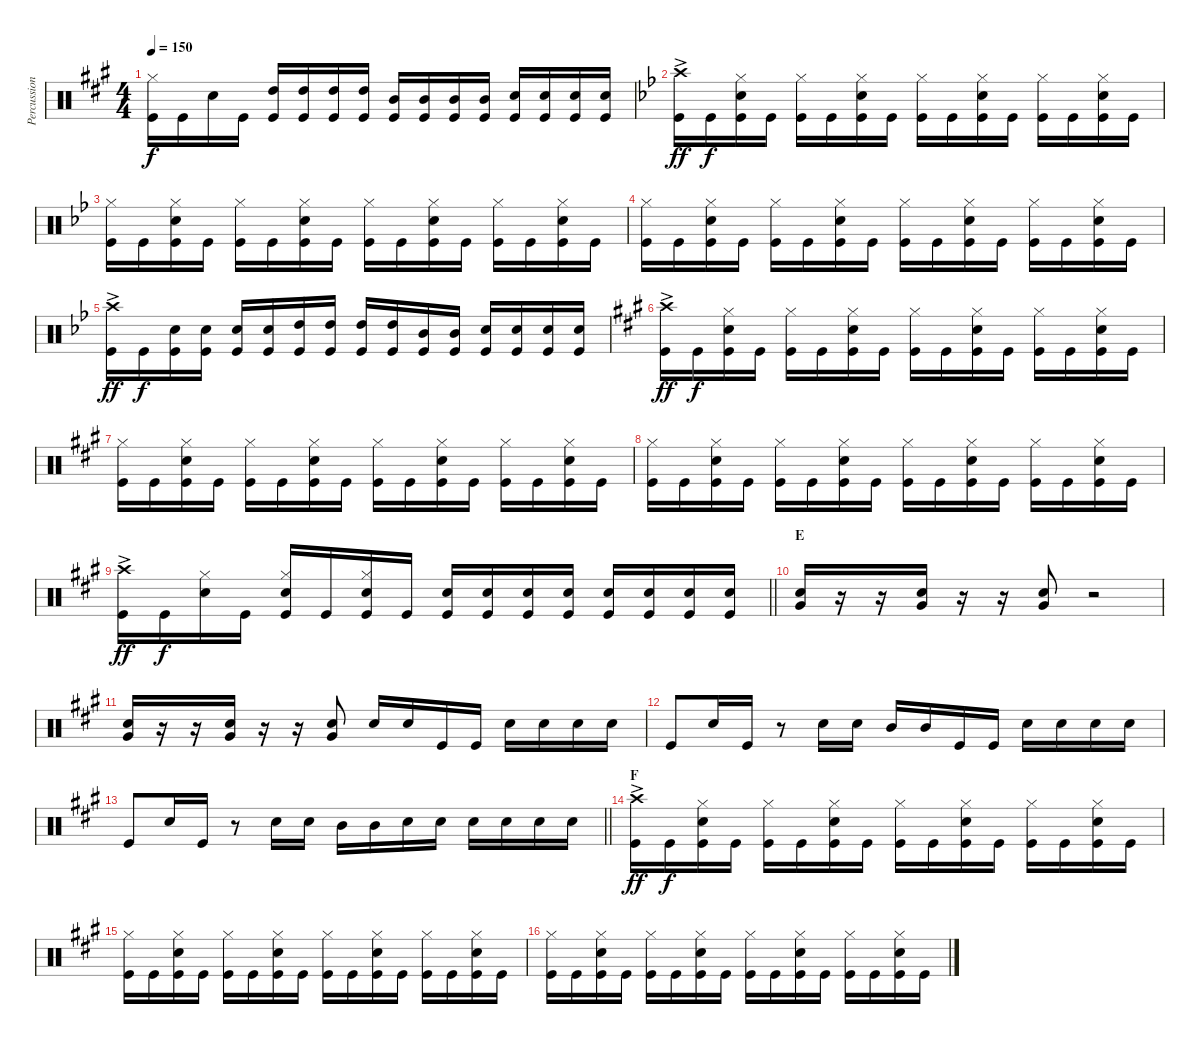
\track ("Percussion" "Percussion") {instrument percussion}
\staff {score}
\articulation defaults
\ts (4 4)
\tempo 150
\clef neutral
\ks a
("Kick (hit)" "Hi-Hat (closed)").16{dy f} "Kick (hit)".16 "Snare (hit) 2".16 "Kick (hit)".16 ("Kick (hit)" "High Tom (hit)").16 ("Kick (hit)" "High Tom (hit)").16 ("Kick (hit)" "High Tom (hit)").16 ("Kick (hit)" "High Tom (hit)").16 ("Kick (hit)" "Mid Tom (hit)").16 ("Kick (hit)" "Mid Tom (hit)").16 ("Kick (hit)" "Mid Tom (hit)").16 ("Kick (hit)" "Mid Tom (hit)").16 ("Kick (hit)" "Snare (hit) 2").16 ("Kick (hit)" "Snare (hit) 2").16 ("Kick (hit)" "Snare (hit) 2").16 ("Kick (hit)" "Snare (hit) 2").16 |
\ks bb
("Crash high (hit)"{ac} "Kick (hit)").16{dy ff} "Kick (hit)".16{dy f} ("Hi-Hat (closed)" "Kick (hit)" "Snare (hit) 2").16 "Kick (hit)".16 ("Hi-Hat (closed)" "Kick (hit)").16 "Kick (hit)".16 ("Hi-Hat (closed)" "Kick (hit)" "Snare (hit) 2").16 "Kick (hit)".16 ("Kick (hit)" "Hi-Hat (closed)").16 "Kick (hit)".16 ("Kick (hit)" "Hi-Hat (closed)" "Snare (hit) 2").16 "Kick (hit)".16 ("Kick (hit)" "Hi-Hat (closed)").16 "Kick (hit)".16 ("Kick (hit)" "Hi-Hat (closed)" "Snare (hit) 2").16 "Kick (hit)".16 |
("Hi-Hat (closed)" "Kick (hit)").16 "Kick (hit)".16 ("Hi-Hat (closed)" "Kick (hit)" "Snare (hit) 2").16 "Kick (hit)".16 ("Hi-Hat (closed)" "Kick (hit)").16 "Kick (hit)".16 ("Hi-Hat (closed)" "Kick (hit)" "Snare (hit) 2").16 "Kick (hit)".16 ("Kick (hit)" "Hi-Hat (closed)").16 "Kick (hit)".16 ("Kick (hit)" "Hi-Hat (closed)" "Snare (hit) 2").16 "Kick (hit)".16 ("Kick (hit)" "Hi-Hat (closed)").16 "Kick (hit)".16 ("Kick (hit)" "Hi-Hat (closed)" "Snare (hit) 2").16 "Kick (hit)".16 |
("Hi-Hat (closed)" "Kick (hit)").16 "Kick (hit)".16 ("Hi-Hat (closed)" "Kick (hit)" "Snare (hit) 2").16 "Kick (hit)".16 ("Hi-Hat (closed)" "Kick (hit)").16 "Kick (hit)".16 ("Hi-Hat (closed)" "Kick (hit)" "Snare (hit) 2").16 "Kick (hit)".16 ("Kick (hit)" "Hi-Hat (closed)").16 "Kick (hit)".16 ("Kick (hit)" "Hi-Hat (closed)" "Snare (hit) 2").16 "Kick (hit)".16 ("Kick (hit)" "Hi-Hat (closed)").16 "Kick (hit)".16 ("Kick (hit)" "Hi-Hat (closed)" "Snare (hit) 2").16 "Kick (hit)".16 |
("Kick (hit)" "Crash high (hit)"{ac}).16{dy ff} "Kick (hit)".16{dy f} ("Snare (hit) 2" "Kick (hit)").16 ("Kick (hit)" "Snare (hit) 2").16 ("Kick (hit)" "Snare (hit) 2").16 ("Kick (hit)" "Snare (hit) 2").16 ("Kick (hit)" "High Tom (hit)").16 ("Kick (hit)" "High Tom (hit)").16 ("Kick (hit)" "High Tom (hit)").16 ("Kick (hit)" "High Tom (hit)").16 ("Kick (hit)" "Mid Tom (hit)").16 ("Kick (hit)" "Mid Tom (hit)").16 ("Kick (hit)" "Snare (hit) 2").16 ("Kick (hit)" "Snare (hit) 2").16 ("Kick (hit)" "Snare (hit) 2").16 ("Kick (hit)" "Snare (hit) 2").16 |
\ks a
("Crash high (hit)"{ac} "Kick (hit)").16{dy ff} "Kick (hit)".16{dy f} ("Hi-Hat (closed)" "Kick (hit)" "Snare (hit) 2").16 "Kick (hit)".16 ("Hi-Hat (closed)" "Kick (hit)").16 "Kick (hit)".16 ("Hi-Hat (closed)" "Kick (hit)" "Snare (hit) 2").16 "Kick (hit)".16 ("Kick (hit)" "Hi-Hat (closed)").16 "Kick (hit)".16 ("Kick (hit)" "Hi-Hat (closed)" "Snare (hit) 2").16 "Kick (hit)".16 ("Kick (hit)" "Hi-Hat (closed)").16 "Kick (hit)".16 ("Kick (hit)" "Hi-Hat (closed)" "Snare (hit) 2").16 "Kick (hit)".16 |
("Hi-Hat (closed)" "Kick (hit)").16 "Kick (hit)".16 ("Hi-Hat (closed)" "Kick (hit)" "Snare (hit) 2").16 "Kick (hit)".16 ("Hi-Hat (closed)" "Kick (hit)").16 "Kick (hit)".16 ("Hi-Hat (closed)" "Kick (hit)" "Snare (hit) 2").16 "Kick (hit)".16 ("Kick (hit)" "Hi-Hat (closed)").16 "Kick (hit)".16 ("Kick (hit)" "Hi-Hat (closed)" "Snare (hit) 2").16 "Kick (hit)".16 ("Kick (hit)" "Hi-Hat (closed)").16 "Kick (hit)".16 ("Kick (hit)" "Hi-Hat (closed)" "Snare (hit) 2").16 "Kick (hit)".16 |
("Hi-Hat (closed)" "Kick (hit)").16 "Kick (hit)".16 ("Hi-Hat (closed)" "Kick (hit)" "Snare (hit) 2").16 "Kick (hit)".16 ("Hi-Hat (closed)" "Kick (hit)").16 "Kick (hit)".16 ("Hi-Hat (closed)" "Kick (hit)" "Snare (hit) 2").16 "Kick (hit)".16 ("Kick (hit)" "Hi-Hat (closed)").16 "Kick (hit)".16 ("Kick (hit)" "Hi-Hat (closed)" "Snare (hit) 2").16 "Kick (hit)".16 ("Kick (hit)" "Hi-Hat (closed)").16 "Kick (hit)".16 ("Kick (hit)" "Hi-Hat (closed)" "Snare (hit) 2").16 "Kick (hit)".16 |
\barLineRight lightlight
("Crash high (hit)"{ac} "Kick (hit)").16{dy ff} "Kick (hit)".16{dy f} ("Hi-Hat (closed)" "Snare (hit) 2").16 "Kick (hit)".16 ("Hi-Hat (closed)" "Snare (hit) 2" "Kick (hit)").16 "Kick (hit)".16 ("Hi-Hat (closed)" "Snare (hit) 2" "Kick (hit)").16 "Kick (hit)".16 ("Snare (hit) 2" "Kick (hit)").16 ("Snare (hit) 2" "Kick (hit)").16 ("Snare (hit) 2" "Kick (hit)").16 ("Snare (hit) 2" "Kick (hit)").16 ("Snare (hit) 2" "Kick (hit)").16 ("Snare (hit) 2" "Kick (hit)").16 ("Snare (hit) 2" "Kick (hit)").16 ("Snare (hit) 2" "Kick (hit)").16 |
\section ("" "E")
("Snare (hit) 2" "Very Low Tom (hit)").16 r.16 r.16 ("Snare (hit) 2" "Very Low Tom (hit)").16 r.16 r.16 ("Snare (hit) 2" "Very Low Tom (hit)").8 r.2 |
("Snare (hit) 2" "Very Low Tom (hit)").16 r.16 r.16 ("Snare (hit) 2" "Very Low Tom (hit)").16 r.16 r.16 ("Snare (hit) 2" "Very Low Tom (hit)").8 "Snare (hit) 2".16 "Snare (hit) 2".16 "Kick (hit)".16 "Kick (hit)".16 "Snare (hit) 2".16 "Snare (hit) 2".16 "Snare (hit) 2".16 "Snare (hit) 2".16 |
"Kick (hit)".8 "Snare (hit) 2".16 "Kick (hit)".16 r.8 "Snare (hit) 2".16 "Snare (hit) 2".16 "Mid Tom (hit)".16 "Mid Tom (hit)".16 "Kick (hit)".16 "Kick (hit)".16 "Snare (hit) 2".16 "Snare (hit) 2".16 "Snare (hit) 2".16 "Snare (hit) 2".16 |
\barLineRight lightlight "Kick (hit)".8 "Snare (hit) 2".16 "Kick (hit)".16
r.8 "Snare (hit) 2".16 "Snare (hit) 2".16 "Mid Tom (hit)".16 "Mid Tom (hit)".16 "Snare (hit) 2".16 "Snare (hit) 2".16 "Snare (hit) 2".16 "Snare (hit) 2".16 "Snare (hit) 2".16 "Snare (hit) 2".16 |
\section ("" "F")
("Crash high (hit)"{ac} "Kick (hit)").16{dy ff} "Kick (hit)".16{dy f} ("Hi-Hat (closed)" "Kick (hit)" "Snare (hit) 2").16 "Kick (hit)".16 ("Hi-Hat (closed)" "Kick (hit)").16 "Kick (hit)".16 ("Hi-Hat (closed)" "Kick (hit)" "Snare (hit) 2").16 "Kick (hit)".16 ("Kick (hit)" "Hi-Hat (closed)").16 "Kick (hit)".16 ("Kick (hit)" "Hi-Hat (closed)" "Snare (hit) 2").16 "Kick (hit)".16 ("Kick (hit)" "Hi-Hat (closed)").16 "Kick (hit)".16 ("Kick (hit)" "Hi-Hat (closed)" "Snare (hit) 2").16 "Kick (hit)".16 |
("Hi-Hat (closed)" "Kick (hit)").16 "Kick (hit)".16 ("Hi-Hat (closed)" "Kick (hit)" "Snare (hit) 2").16 "Kick (hit)".16 ("Hi-Hat (closed)" "Kick (hit)").16 "Kick (hit)".16 ("Hi-Hat (closed)" "Kick (hit)" "Snare (hit) 2").16 "Kick (hit)".16 ("Kick (hit)" "Hi-Hat (closed)").16 "Kick (hit)".16 ("Kick (hit)" "Hi-Hat (closed)" "Snare (hit) 2").16 "Kick (hit)".16 ("Kick (hit)" "Hi-Hat (closed)").16 "Kick (hit)".16 ("Kick (hit)" "Hi-Hat (closed)" "Snare (hit) 2").16 "Kick (hit)".16 |
("Hi-Hat (closed)" "Kick (hit)").16 "Kick (hit)".16 ("Hi-Hat (closed)" "Kick (hit)" "Snare (hit) 2").16 "Kick (hit)".16 ("Hi-Hat (closed)" "Kick (hit)").16 "Kick (hit)".16 ("Hi-Hat (closed)" "Kick (hit)" "Snare (hit) 2").16 "Kick (hit)".16 ("Kick (hit)" "Hi-Hat (closed)").16 "Kick (hit)".16 ("Kick (hit)" "Hi-Hat (closed)" "Snare (hit) 2").16 "Kick (hit)".16 ("Kick (hit)" "Hi-Hat (closed)").16 "Kick (hit)".16 ("Kick (hit)" "Hi-Hat (closed)" "Snare (hit) 2").16 "Kick (hit)".16
